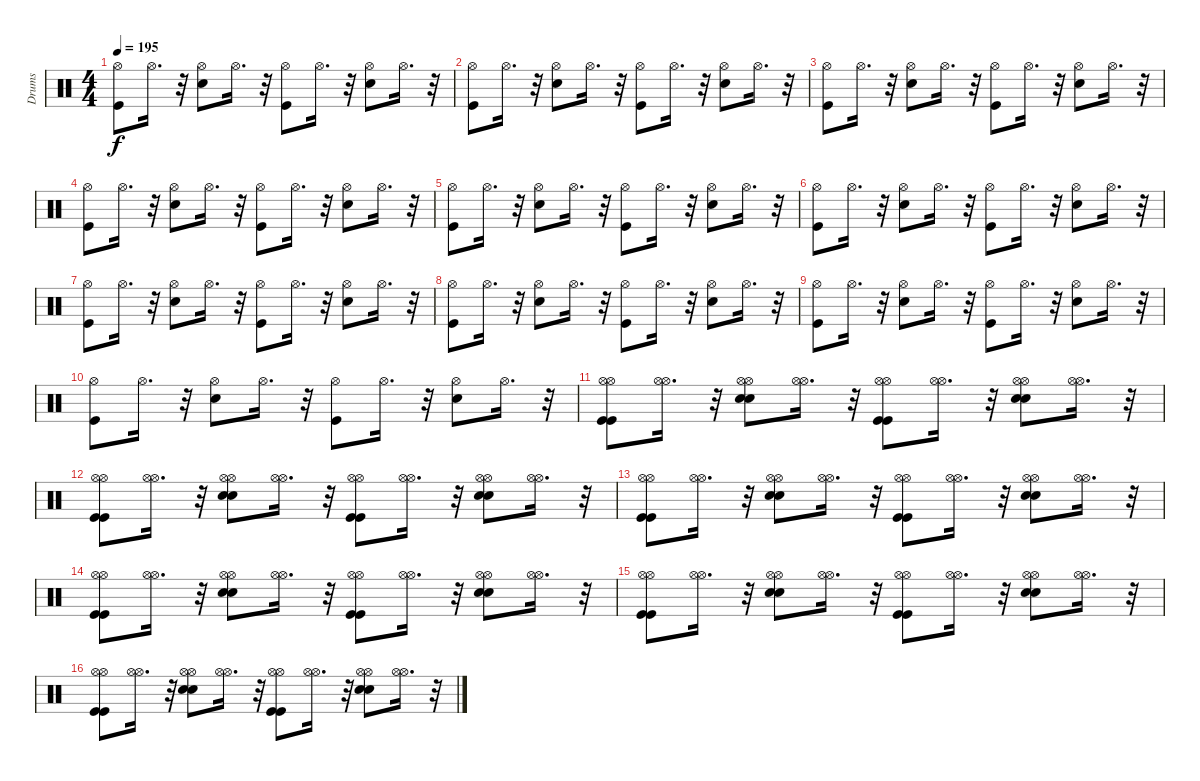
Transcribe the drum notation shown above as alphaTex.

\track ("Drums" "Drums") {instrument percussion}
\staff {score}
\articulation defaults
\ts (4 4)
\tempo 195
\clef neutral
\ks c
("Kick (hit)" "Hi-Hat (open)").8{dy f} "Hi-Hat (open)".16{d} r.32 ("Electric Snare (hit)" "Hi-Hat (open)").8 "Hi-Hat (open)".16{d} r.32 ("Hi-Hat (open)" "Kick (hit)").8 "Hi-Hat (open)".16{d} r.32 ("Electric Snare (hit)" "Hi-Hat (open)").8 "Hi-Hat (open)".16{d} r.32 |
("Hi-Hat (open)" "Kick (hit)").8 "Hi-Hat (open)".16{d} r.32 ("Hi-Hat (open)" "Electric Snare (hit)").8 "Hi-Hat (open)".16{d} r.32 ("Kick (hit)" "Hi-Hat (open)").8 "Hi-Hat (open)".16{d} r.32 ("Electric Snare (hit)" "Hi-Hat (open)").8 "Hi-Hat (open)".16{d} r.32 |
("Hi-Hat (open)" "Kick (hit)").8 "Hi-Hat (open)".16{d} r.32 ("Hi-Hat (open)" "Electric Snare (hit)").8 "Hi-Hat (open)".16{d} r.32 ("Hi-Hat (open)" "Kick (hit)").8 "Hi-Hat (open)".16{d} r.32 ("Hi-Hat (open)" "Electric Snare (hit)").8 "Hi-Hat (open)".16{d} r.32 |
("Hi-Hat (open)" "Kick (hit)").8 "Hi-Hat (open)".16{d} r.32 ("Electric Snare (hit)" "Hi-Hat (open)").8 "Hi-Hat (open)".16{d} r.32 ("Kick (hit)" "Hi-Hat (open)").8 "Hi-Hat (open)".16{d} r.32 ("Hi-Hat (open)" "Electric Snare (hit)").8 "Hi-Hat (open)".16{d} r.32 |
("Hi-Hat (open)" "Kick (hit)").8 "Hi-Hat (open)".16{d} r.32 ("Hi-Hat (open)" "Electric Snare (hit)").8 "Hi-Hat (open)".16{d} r.32 ("Hi-Hat (open)" "Kick (hit)").8 "Hi-Hat (open)".16{d} r.32 ("Electric Snare (hit)" "Hi-Hat (open)").8 "Hi-Hat (open)".16{d} r.32 |
("Kick (hit)" "Hi-Hat (open)").8 "Hi-Hat (open)".16{d} r.32 ("Hi-Hat (open)" "Electric Snare (hit)").8 "Hi-Hat (open)".16{d} r.32 ("Kick (hit)" "Hi-Hat (open)").8 "Hi-Hat (open)".16{d} r.32 ("Electric Snare (hit)" "Hi-Hat (open)").8 "Hi-Hat (open)".16{d} r.32 |
("Kick (hit)" "Hi-Hat (open)").8 "Hi-Hat (open)".16{d} r.32 ("Electric Snare (hit)" "Hi-Hat (open)").8 "Hi-Hat (open)".16{d} r.32 ("Hi-Hat (open)" "Kick (hit)").8 "Hi-Hat (open)".16{d} r.32 ("Hi-Hat (open)" "Electric Snare (hit)").8 "Hi-Hat (open)".16{d} r.32 |
("Kick (hit)" "Hi-Hat (open)").8 "Hi-Hat (open)".16{d} r.32 ("Electric Snare (hit)" "Hi-Hat (open)").8 "Hi-Hat (open)".16{d} r.32 ("Hi-Hat (open)" "Kick (hit)").8 "Hi-Hat (open)".16{d} r.32 ("Hi-Hat (open)" "Electric Snare (hit)").8 "Hi-Hat (open)".16{d} r.32 |
("Hi-Hat (open)" "Kick (hit)").8 "Hi-Hat (open)".16{d} r.32 ("Hi-Hat (open)" "Electric Snare (hit)").8 "Hi-Hat (open)".16{d} r.32 ("Kick (hit)" "Hi-Hat (open)").8 "Hi-Hat (open)".16{d} r.32 ("Hi-Hat (open)" "Electric Snare (hit)").8 "Hi-Hat (open)".16{d} r.32 |
("Hi-Hat (open)" "Kick (hit)").8 "Hi-Hat (open)".16{d} r.32 ("Hi-Hat (open)" "Electric Snare (hit)").8 "Hi-Hat (open)".16{d} r.32 ("Kick (hit)" "Hi-Hat (open)").8 "Hi-Hat (open)".16{d} r.32 ("Electric Snare (hit)" "Hi-Hat (open)").8 "Hi-Hat (open)".16{d} r.32 |
("Kick (hit)" "Kick (hit)" "Hi-Hat (open)" "Hi-Hat (open)").8 ("Hi-Hat (open)" "Hi-Hat (open)").16{d} r.32 ("Electric Snare (hit)" "Hi-Hat (open)" "Hi-Hat (open)" "Electric Snare (hit)").8 ("Hi-Hat (open)" "Hi-Hat (open)").16{d} r.32 ("Hi-Hat (open)" "Hi-Hat (open)" "Kick (hit)" "Kick (hit)").8 ("Hi-Hat (open)" "Hi-Hat (open)").16{d} r.32 ("Hi-Hat (open)" "Hi-Hat (open)" "Electric Snare (hit)" "Electric Snare (hit)").8 ("Hi-Hat (open)" "Hi-Hat (open)").16{d} r.32 |
("Hi-Hat (open)" "Kick (hit)" "Kick (hit)" "Hi-Hat (open)").8 ("Hi-Hat (open)" "Hi-Hat (open)").16{d} r.32 ("Electric Snare (hit)" "Electric Snare (hit)" "Hi-Hat (open)" "Hi-Hat (open)").8 ("Hi-Hat (open)" "Hi-Hat (open)").16{d} r.32 ("Kick (hit)" "Hi-Hat (open)" "Kick (hit)" "Hi-Hat (open)").8 ("Hi-Hat (open)" "Hi-Hat (open)").16{d} r.32 ("Electric Snare (hit)" "Hi-Hat (open)" "Hi-Hat (open)" "Electric Snare (hit)").8 ("Hi-Hat (open)" "Hi-Hat (open)").16{d} r.32 |
("Kick (hit)" "Hi-Hat (open)" "Kick (hit)" "Hi-Hat (open)").8 ("Hi-Hat (open)" "Hi-Hat (open)").16{d} r.32 ("Hi-Hat (open)" "Electric Snare (hit)" "Hi-Hat (open)" "Electric Snare (hit)").8 ("Hi-Hat (open)" "Hi-Hat (open)").16{d} r.32 ("Kick (hit)" "Kick (hit)" "Hi-Hat (open)" "Hi-Hat (open)").8 ("Hi-Hat (open)" "Hi-Hat (open)").16{d} r.32 ("Hi-Hat (open)" "Electric Snare (hit)" "Hi-Hat (open)" "Electric Snare (hit)").8 ("Hi-Hat (open)" "Hi-Hat (open)").16{d} r.32 |
("Kick (hit)" "Hi-Hat (open)" "Kick (hit)" "Hi-Hat (open)").8 ("Hi-Hat (open)" "Hi-Hat (open)").16{d} r.32 ("Hi-Hat (open)" "Electric Snare (hit)" "Hi-Hat (open)" "Electric Snare (hit)").8 ("Hi-Hat (open)" "Hi-Hat (open)").16{d} r.32 ("Kick (hit)" "Hi-Hat (open)" "Kick (hit)" "Hi-Hat (open)").8 ("Hi-Hat (open)" "Hi-Hat (open)").16{d} r.32 ("Hi-Hat (open)" "Electric Snare (hit)" "Hi-Hat (open)" "Electric Snare (hit)").8 ("Hi-Hat (open)" "Hi-Hat (open)").16{d} r.32 |
("Hi-Hat (open)" "Kick (hit)" "Kick (hit)" "Hi-Hat (open)").8 ("Hi-Hat (open)" "Hi-Hat (open)").16{d} r.32 ("Hi-Hat (open)" "Electric Snare (hit)" "Hi-Hat (open)" "Electric Snare (hit)").8 ("Hi-Hat (open)" "Hi-Hat (open)").16{d} r.32 ("Hi-Hat (open)" "Kick (hit)" "Hi-Hat (open)" "Kick (hit)").8 ("Hi-Hat (open)" "Hi-Hat (open)").16{d} r.32 ("Hi-Hat (open)" "Electric Snare (hit)" "Hi-Hat (open)" "Electric Snare (hit)").8 ("Hi-Hat (open)" "Hi-Hat (open)").16{d} r.32 |
("Hi-Hat (open)" "Hi-Hat (open)" "Kick (hit)" "Kick (hit)").8 ("Hi-Hat (open)" "Hi-Hat (open)").16{d} r.32 ("Electric Snare (hit)" "Hi-Hat (open)" "Hi-Hat (open)" "Electric Snare (hit)").8 ("Hi-Hat (open)" "Hi-Hat (open)").16{d} r.32 ("Kick (hit)" "Kick (hit)" "Hi-Hat (open)" "Hi-Hat (open)").8 ("Hi-Hat (open)" "Hi-Hat (open)").16{d} r.32 ("Hi-Hat (open)" "Electric Snare (hit)" "Hi-Hat (open)" "Electric Snare (hit)").8 ("Hi-Hat (open)" "Hi-Hat (open)").16{d} r.32
